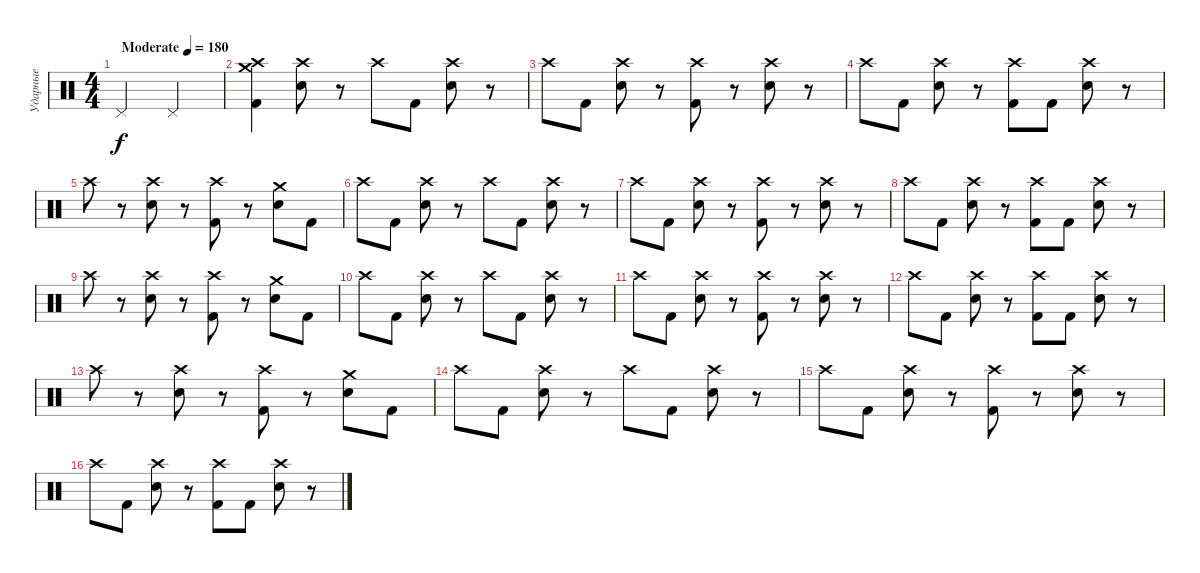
\track ("Ударные" "Ударные") {instrument percussion}
\staff {score}
\articulation defaults
\ts (4 4)
\tempo (180 "Moderate")
\clef neutral
\ks c "Pedal Hi-Hat (hit)".2{dy f} "Pedal Hi-Hat (hit)".2
|
("Crash medium (hit)" "Crash high (hit)" "Kick (hit) 2").4 ("Crash high (hit)" "Electric Snare (hit)").8 r.8 "Crash high (hit)".8 "Kick (hit) 2".8 ("Crash high (hit)" "Electric Snare (hit)").8 r.8 |
"Crash high (hit)".8 "Kick (hit) 2".8 ("Crash high (hit)" "Electric Snare (hit)").8 r.8 ("Crash high (hit)" "Kick (hit) 2").8 r.8 ("Crash high (hit)" "Electric Snare (hit)").8 r.8 |
"Crash high (hit)".8 "Kick (hit) 2".8 ("Crash high (hit)" "Electric Snare (hit)").8 r.8 ("Crash high (hit)" "Kick (hit) 2").8 "Kick (hit) 2".8 ("Crash high (hit)" "Electric Snare (hit)").8 r.8 |
"Crash high (hit)".8 r.8 ("Crash high (hit)" "Electric Snare (hit)").8 r.8 ("Crash high (hit)" "Kick (hit) 2").8 r.8 ("Crash medium (hit)" "Electric Snare (hit)").8 "Kick (hit) 2".8 |
"Crash high (hit)".8 "Kick (hit) 2".8 ("Crash high (hit)" "Electric Snare (hit)").8 r.8 "Crash high (hit)".8 "Kick (hit) 2".8 ("Crash high (hit)" "Electric Snare (hit)").8 r.8 |
"Crash high (hit)".8 "Kick (hit) 2".8 ("Crash high (hit)" "Electric Snare (hit)").8 r.8 ("Crash high (hit)" "Kick (hit) 2").8 r.8 ("Crash high (hit)" "Electric Snare (hit)").8 r.8 |
"Crash high (hit)".8 "Kick (hit) 2".8 ("Crash high (hit)" "Electric Snare (hit)").8 r.8 ("Crash high (hit)" "Kick (hit) 2").8 "Kick (hit) 2".8 ("Crash high (hit)" "Electric Snare (hit)").8 r.8 |
"Crash high (hit)".8 r.8 ("Crash high (hit)" "Electric Snare (hit)").8 r.8 ("Crash high (hit)" "Kick (hit) 2").8 r.8 ("Crash medium (hit)" "Electric Snare (hit)").8 "Kick (hit) 2".8 |
"Crash high (hit)".8 "Kick (hit) 2".8 ("Crash high (hit)" "Electric Snare (hit)").8 r.8 "Crash high (hit)".8 "Kick (hit) 2".8 ("Crash high (hit)" "Electric Snare (hit)").8 r.8 |
"Crash high (hit)".8 "Kick (hit) 2".8 ("Crash high (hit)" "Electric Snare (hit)").8 r.8 ("Crash high (hit)" "Kick (hit) 2").8 r.8 ("Crash high (hit)" "Electric Snare (hit)").8 r.8 |
"Crash high (hit)".8 "Kick (hit) 2".8 ("Crash high (hit)" "Electric Snare (hit)").8 r.8 ("Crash high (hit)" "Kick (hit) 2").8 "Kick (hit) 2".8 ("Crash high (hit)" "Electric Snare (hit)").8 r.8 |
"Crash high (hit)".8 r.8 ("Crash high (hit)" "Electric Snare (hit)").8 r.8 ("Crash high (hit)" "Kick (hit) 2").8 r.8 ("Crash medium (hit)" "Electric Snare (hit)").8 "Kick (hit) 2".8 |
"Crash high (hit)".8 "Kick (hit) 2".8 ("Crash high (hit)" "Electric Snare (hit)").8 r.8 "Crash high (hit)".8 "Kick (hit) 2".8 ("Crash high (hit)" "Electric Snare (hit)").8 r.8 |
"Crash high (hit)".8 "Kick (hit) 2".8 ("Crash high (hit)" "Electric Snare (hit)").8 r.8 ("Crash high (hit)" "Kick (hit) 2").8 r.8 ("Crash high (hit)" "Electric Snare (hit)").8 r.8 |
"Crash high (hit)".8 "Kick (hit) 2".8 ("Crash high (hit)" "Electric Snare (hit)").8 r.8 ("Crash high (hit)" "Kick (hit) 2").8 "Kick (hit) 2".8 ("Crash high (hit)" "Electric Snare (hit)").8 r.8
